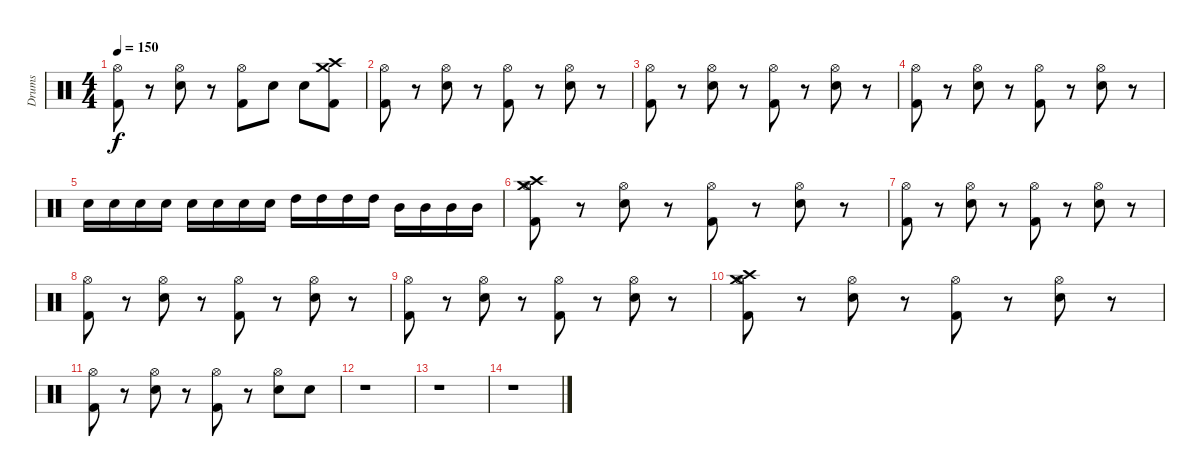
\track ("Drums" "Drums") {instrument percussion}
\staff {score}
\articulation defaults
\ts (4 4)
\tempo 150
\clef neutral
\ks c
("Hi-Hat (open)" "Kick (hit) 2").8{dy f} r.8 ("Hi-Hat (open)" "Electric Snare (hit)").8 r.8 ("Hi-Hat (open)" "Kick (hit) 2").8 "Electric Snare (hit)".8 "Electric Snare (hit)".8 ("Kick (hit) 2" "Crash medium (hit)" "Crash high (hit)").8 |
("Hi-Hat (open)" "Kick (hit) 2").8 r.8 ("Hi-Hat (open)" "Electric Snare (hit)").8 r.8 ("Hi-Hat (open)" "Kick (hit) 2").8 r.8 ("Hi-Hat (open)" "Electric Snare (hit)").8 r.8 |
("Hi-Hat (open)" "Kick (hit) 2").8 r.8 ("Hi-Hat (open)" "Electric Snare (hit)").8 r.8 ("Hi-Hat (open)" "Kick (hit) 2").8 r.8 ("Hi-Hat (open)" "Electric Snare (hit)").8 r.8 |
("Hi-Hat (open)" "Kick (hit) 2").8 r.8 ("Hi-Hat (open)" "Electric Snare (hit)").8 r.8 ("Hi-Hat (open)" "Kick (hit) 2").8 r.8 ("Hi-Hat (open)" "Electric Snare (hit)").8 r.8 |
"Electric Snare (hit)".16 "Electric Snare (hit)".16 "Electric Snare (hit)".16 "Electric Snare (hit)".16 "Electric Snare (hit)".16 "Electric Snare (hit)".16 "Electric Snare (hit)".16 "Electric Snare (hit)".16 "High Tom (hit)".16 "High Tom (hit)".16 "High Tom (hit)".16 "High Tom (hit)".16 "Mid Tom (hit)".16 "Mid Tom (hit)".16 "Mid Tom (hit)".16 "Mid Tom (hit)".16 |
("Hi-Hat (open)" "Kick (hit) 2" "Crash high (hit)" "Crash medium (hit)").8 r.8 ("Hi-Hat (open)" "Electric Snare (hit)").8 r.8 ("Hi-Hat (open)" "Kick (hit) 2").8 r.8 ("Hi-Hat (open)" "Electric Snare (hit)").8 r.8 |
("Hi-Hat (open)" "Kick (hit) 2").8 r.8 ("Hi-Hat (open)" "Electric Snare (hit)").8 r.8 ("Hi-Hat (open)" "Kick (hit) 2").8 r.8 ("Hi-Hat (open)" "Electric Snare (hit)").8 r.8 |
("Hi-Hat (open)" "Kick (hit) 2").8 r.8 ("Hi-Hat (open)" "Electric Snare (hit)").8 r.8 ("Hi-Hat (open)" "Kick (hit) 2").8 r.8 ("Hi-Hat (open)" "Electric Snare (hit)").8 r.8 |
("Hi-Hat (open)" "Kick (hit) 2").8 r.8 ("Hi-Hat (open)" "Electric Snare (hit)").8 r.8 ("Hi-Hat (open)" "Kick (hit) 2").8 r.8 ("Hi-Hat (open)" "Electric Snare (hit)").8 r.8 |
("Hi-Hat (open)" "Kick (hit) 2" "Crash medium (hit)" "Crash high (hit)").8 r.8 ("Hi-Hat (open)" "Electric Snare (hit)").8 r.8 ("Hi-Hat (open)" "Kick (hit) 2").8 r.8 ("Hi-Hat (open)" "Electric Snare (hit)").8 r.8 |
("Hi-Hat (open)" "Kick (hit) 2").8 r.8 ("Hi-Hat (open)" "Electric Snare (hit)").8 r.8 ("Hi-Hat (open)" "Kick (hit) 2").8 r.8 ("Hi-Hat (open)" "Electric Snare (hit)").8 "Electric Snare (hit)".8 |
r.1 |
r.1 |
r.1
